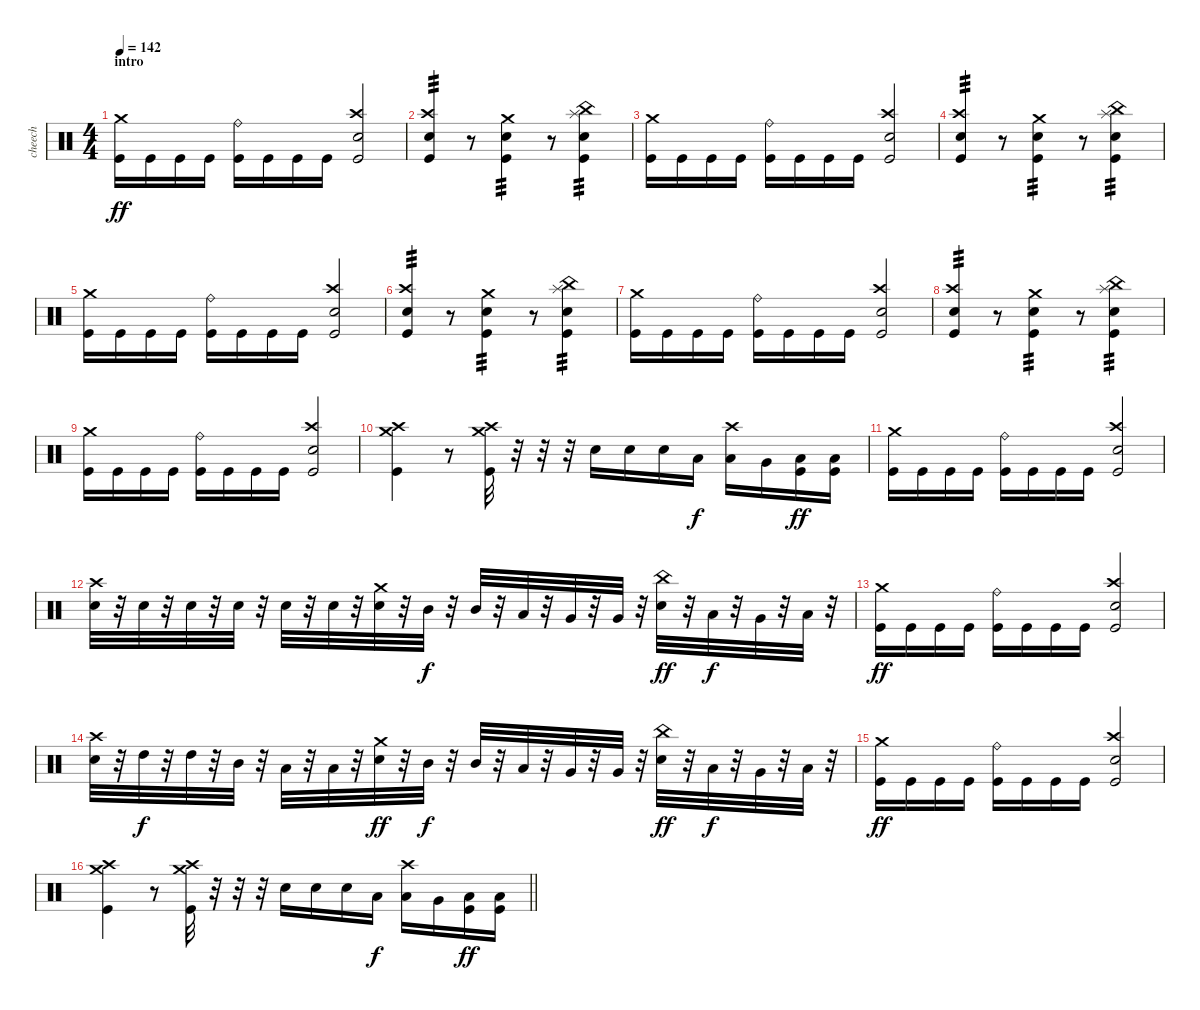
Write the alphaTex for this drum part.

\track ("cheech" "cheech") {instrument percussion}
\staff {score}
\articulation defaults
\ts (4 4)
\section ("" "intro")
\tempo 142
\clef neutral
\ks c
("Crash medium (hit)" "Kick (hit)").16{dy ff} "Kick (hit)".16 "Kick (hit)".16 "Kick (hit)".16 ("Ride (bell)" "Kick (hit)").16 "Kick (hit)".16 "Kick (hit)".16 "Kick (hit)".16 ("Crash high (hit)" "Electric Snare (hit)" "Kick (hit)").2 |
("Crash high (hit)" "Electric Snare (hit)" "Kick (hit)").4{tp 3} r.8 ("Crash medium (hit)" "Electric Snare (hit)" "Kick (hit)").4{tp 3} r.8 ("China (hit)" "Splash (hit)" "Electric Snare (hit)" "Kick (hit)").4{tp 3} |
("Crash medium (hit)" "Kick (hit)").16 "Kick (hit)".16 "Kick (hit)".16 "Kick (hit)".16 ("Ride (bell)" "Kick (hit)").16 "Kick (hit)".16 "Kick (hit)".16 "Kick (hit)".16 ("Crash high (hit)" "Electric Snare (hit)" "Kick (hit)").2 |
("Crash high (hit)" "Electric Snare (hit)" "Kick (hit)").4{tp 3} r.8 ("Crash medium (hit)" "Electric Snare (hit)" "Kick (hit)").4{tp 3} r.8 ("China (hit)" "Splash (hit)" "Electric Snare (hit)" "Kick (hit)").4{tp 3} |
("Crash medium (hit)" "Kick (hit)").16 "Kick (hit)".16 "Kick (hit)".16 "Kick (hit)".16 ("Ride (bell)" "Kick (hit)").16 "Kick (hit)".16 "Kick (hit)".16 "Kick (hit)".16 ("Crash high (hit)" "Electric Snare (hit)" "Kick (hit)").2 |
("Crash high (hit)" "Electric Snare (hit)" "Kick (hit)").4{tp 3} r.8 ("Crash medium (hit)" "Electric Snare (hit)" "Kick (hit)").4{tp 3} r.8 ("China (hit)" "Splash (hit)" "Electric Snare (hit)" "Kick (hit)").4{tp 3} |
("Crash medium (hit)" "Kick (hit)").16 "Kick (hit)".16 "Kick (hit)".16 "Kick (hit)".16 ("Ride (bell)" "Kick (hit)").16 "Kick (hit)".16 "Kick (hit)".16 "Kick (hit)".16 ("Crash high (hit)" "Electric Snare (hit)" "Kick (hit)").2 |
("Crash high (hit)" "Electric Snare (hit)" "Kick (hit)").4{tp 3} r.8 ("Crash medium (hit)" "Electric Snare (hit)" "Kick (hit)").4{tp 3} r.8 ("China (hit)" "Splash (hit)" "Electric Snare (hit)" "Kick (hit)").4{tp 3} |
("Crash medium (hit)" "Kick (hit)").16 "Kick (hit)".16 "Kick (hit)".16 "Kick (hit)".16 ("Ride (bell)" "Kick (hit)").16 "Kick (hit)".16 "Kick (hit)".16 "Kick (hit)".16 ("Crash high (hit)" "Electric Snare (hit)" "Kick (hit)").2 |
("Crash high (hit)" "Crash medium (hit)" "Kick (hit)").4 r.8 ("Crash medium (hit)" "Crash high (hit)" "Kick (hit)").32 r.32 r.32 r.32 "Electric Snare (hit)".16 "Electric Snare (hit)".16 "Electric Snare (hit)".16 "Low Tom (hit)".16{dy f} ("Crash high (hit)" "Low Tom (hit)").16 "Very Low Tom (hit)".16 ("Low Floor Tom (hit)" "Kick (hit)").16{dy ff} ("Low Floor Tom (hit)" "Kick (hit)").16 |
("Crash medium (hit)" "Kick (hit)").16 "Kick (hit)".16 "Kick (hit)".16 "Kick (hit)".16 ("Ride (bell)" "Kick (hit)").16 "Kick (hit)".16 "Kick (hit)".16 "Kick (hit)".16 ("Crash high (hit)" "Electric Snare (hit)" "Kick (hit)").2 |
("Crash high (hit)" "Electric Snare (hit)").32 r.32 "Electric Snare (hit)".32 r.32 "Electric Snare (hit)".32 r.32 "Electric Snare (hit)".32 r.32 "Electric Snare (hit)".32 r.32 "Electric Snare (hit)".32 r.32 ("Crash medium (hit)" "Electric Snare (hit)").32 r.32 "Mid Tom (hit)".32{dy f} r.32 "Mid Tom (hit)".32 r.32 "Low Tom (hit)".32 r.32 "Very Low Tom (hit)".32 r.32 "Very Low Tom (hit)".32 r.32 ("China (hit)" "Electric Snare (hit)").32{dy ff} r.32 "Low Tom (hit)".32{dy f} r.32 "Very Low Tom (hit)".32 r.32 "Low Floor Tom (hit)".32 r.32 |
("Crash medium (hit)" "Kick (hit)").16{dy ff} "Kick (hit)".16 "Kick (hit)".16 "Kick (hit)".16 ("Ride (bell)" "Kick (hit)").16 "Kick (hit)".16 "Kick (hit)".16 "Kick (hit)".16 ("Crash high (hit)" "Electric Snare (hit)" "Kick (hit)").2 |
("Crash high (hit)" "Electric Snare (hit)").32 r.32 "High Tom (hit)".32{dy f} r.32 "High Tom (hit)".32 r.32 "Mid Tom (hit)".32 r.32 "Low Tom (hit)".32 r.32 "Low Tom (hit)".32 r.32 ("Crash medium (hit)" "Electric Snare (hit)").32{dy ff} r.32 "Mid Tom (hit)".32{dy f} r.32 "Mid Tom (hit)".32 r.32 "Low Tom (hit)".32 r.32 "Very Low Tom (hit)".32 r.32 "Very Low Tom (hit)".32 r.32 ("China (hit)" "Electric Snare (hit)").32{dy ff} r.32 "Low Tom (hit)".32{dy f} r.32 "Very Low Tom (hit)".32 r.32 "Low Floor Tom (hit)".32 r.32 |
("Crash medium (hit)" "Kick (hit)").16{dy ff} "Kick (hit)".16 "Kick (hit)".16 "Kick (hit)".16 ("Ride (bell)" "Kick (hit)").16 "Kick (hit)".16 "Kick (hit)".16 "Kick (hit)".16 ("Crash high (hit)" "Electric Snare (hit)" "Kick (hit)").2 |
\barLineRight lightlight
("Crash high (hit)" "Crash medium (hit)" "Kick (hit)").4 r.8 ("Crash medium (hit)" "Crash high (hit)" "Kick (hit)").32 r.32 r.32 r.32 "Electric Snare (hit)".16 "Electric Snare (hit)".16 "Electric Snare (hit)".16 "Low Tom (hit)".16{dy f} ("Crash high (hit)" "Low Tom (hit)").16 "Very Low Tom (hit)".16 ("Low Floor Tom (hit)" "Kick (hit)").16{dy ff} ("Low Floor Tom (hit)" "Kick (hit)").16
